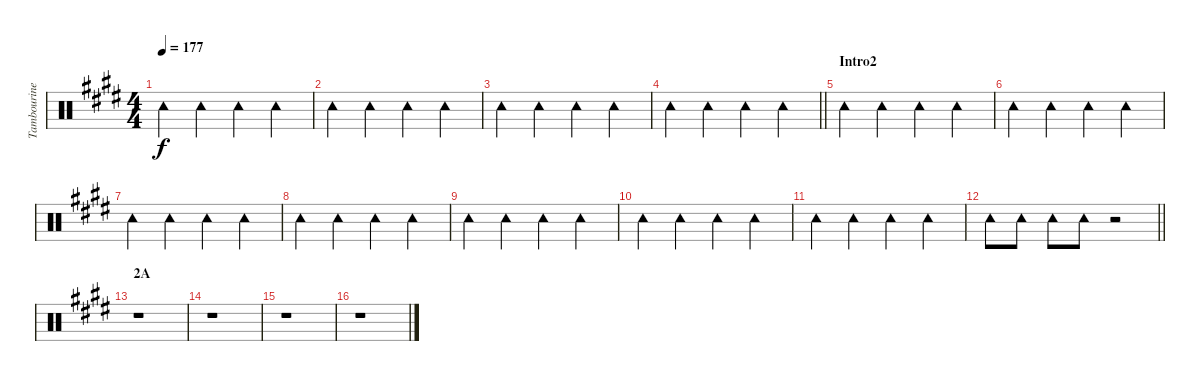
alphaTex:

\track ("Tambourine" "Tambourine") {instrument percussion}
\staff {score}
\articulation defaults
\ts (4 4)
\tempo 177
\clef neutral
\ks e "Tambourine (hit)".4{dy f} "Tambourine (hit)".4 "Tambourine (hit)".4 "Tambourine (hit)".4
|
"Tambourine (hit)".4 "Tambourine (hit)".4 "Tambourine (hit)".4 "Tambourine (hit)".4 |
"Tambourine (hit)".4 "Tambourine (hit)".4 "Tambourine (hit)".4 "Tambourine (hit)".4 |
\barLineRight lightlight "Tambourine (hit)".4 "Tambourine (hit)".4 "Tambourine (hit)".4 "Tambourine (hit)".4
|
\section ("" "Intro2")
"Tambourine (hit)".4 "Tambourine (hit)".4 "Tambourine (hit)".4 "Tambourine (hit)".4 |
"Tambourine (hit)".4 "Tambourine (hit)".4 "Tambourine (hit)".4 "Tambourine (hit)".4 |
"Tambourine (hit)".4 "Tambourine (hit)".4 "Tambourine (hit)".4 "Tambourine (hit)".4 |
"Tambourine (hit)".4 "Tambourine (hit)".4 "Tambourine (hit)".4 "Tambourine (hit)".4 |
"Tambourine (hit)".4 "Tambourine (hit)".4 "Tambourine (hit)".4 "Tambourine (hit)".4 |
"Tambourine (hit)".4 "Tambourine (hit)".4 "Tambourine (hit)".4 "Tambourine (hit)".4 |
"Tambourine (hit)".4 "Tambourine (hit)".4 "Tambourine (hit)".4 "Tambourine (hit)".4 |
\barLineRight lightlight "Tambourine (hit)".8 "Tambourine (hit)".8 "Tambourine (hit)".8 "Tambourine (hit)".8
r.2 |
\section ("" "2A")
r.1 |
r.1 |
r.1 |
r.1
